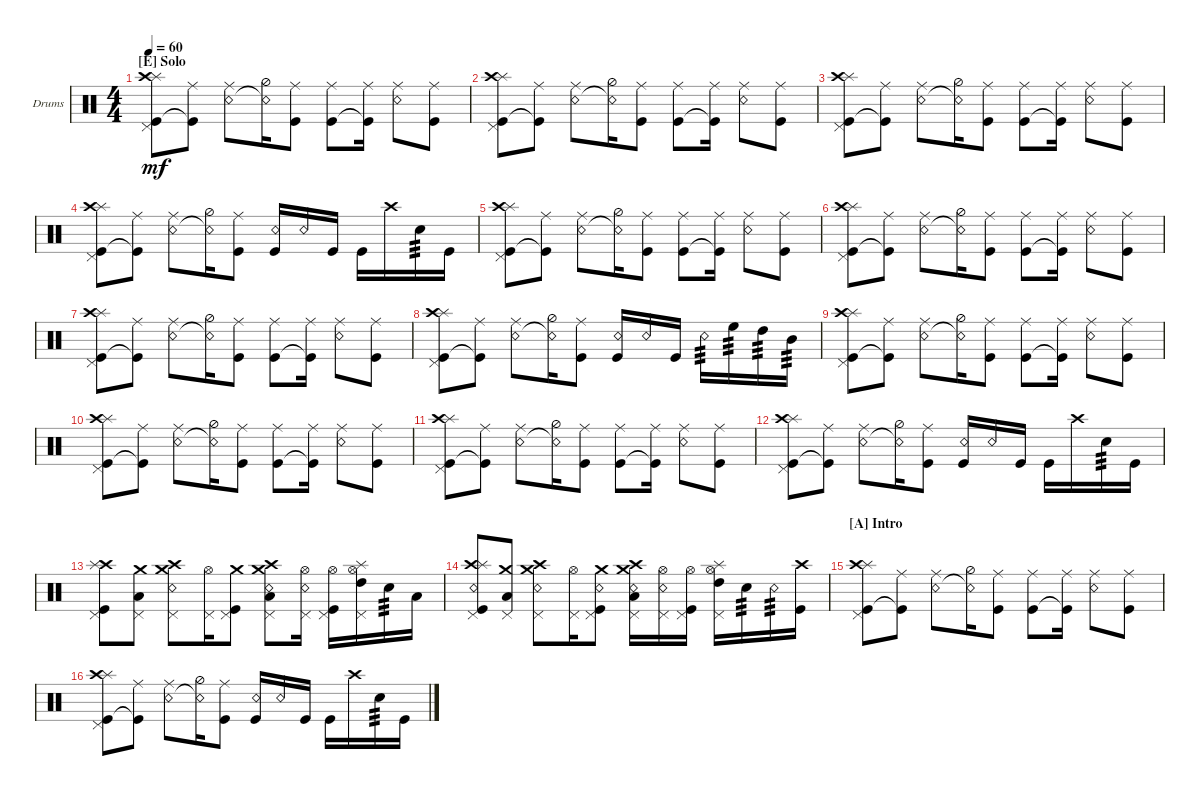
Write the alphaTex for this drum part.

\defaultSystemsLayout 4
\bracketExtendMode groupsimilarinstruments
\firstSystemTrackNameOrientation horizontal
\otherSystemsTrackNameOrientation horizontal
\track ("Drum" "Drums") {multiBarRest instrument percussion}
\staff {score}
\articulation defaults
\ts (4 4)
\section ("E" "Solo")
\tempo 60
\clef neutral
\ks c
("Kick (hit)" "Pedal Hi-Hat (hit)" "Splash (hit)" "Crash high (hit)").8{dy mf} ("Kick (hit)"{t} "Ride (middle)").8 ("Snare (rim shot)" "Ride (middle)").8 ("Snare (rim shot)"{t} "Hi-Hat (half)").16 ("Kick (hit)" "Ride (middle)").8 ("Kick (hit)" "Ride (middle)").8 ("Kick (hit)"{t} "Ride (middle)").16 ("Snare (rim shot)" "Ride (middle)").8 ("Kick (hit)" "Ride (middle)").8 |
("Kick (hit)" "Pedal Hi-Hat (hit)" "Splash (hit)" "Crash high (hit)").8 ("Kick (hit)"{t} "Ride (middle)").8 ("Snare (rim shot)" "Ride (middle)").8 ("Snare (rim shot)"{t} "Hi-Hat (half)").16 ("Kick (hit)" "Ride (middle)").8 ("Kick (hit)" "Ride (middle)").8 ("Kick (hit)"{t} "Ride (middle)").16 ("Snare (rim shot)" "Ride (middle)").8 ("Kick (hit)" "Ride (middle)").8 |
("Kick (hit)" "Pedal Hi-Hat (hit)" "Splash (hit)" "Crash high (hit)").8 ("Kick (hit)"{t} "Ride (middle)").8 ("Snare (rim shot)" "Ride (middle)").8 ("Snare (rim shot)"{t} "Hi-Hat (half)").16 ("Kick (hit)" "Ride (middle)").8 ("Kick (hit)" "Ride (middle)").8 ("Kick (hit)"{t} "Ride (middle)").16 ("Snare (rim shot)" "Ride (middle)").8 ("Kick (hit)" "Ride (middle)").8 |
("Kick (hit)" "Pedal Hi-Hat (hit)" "Splash (hit)" "Crash high (hit)").8 ("Kick (hit)"{t} "Ride (middle)").8 ("Snare (rim shot)" "Ride (middle)").8 ("Snare (rim shot)"{t} "Hi-Hat (half)").16 ("Kick (hit)" "Ride (middle)").8 ("Snare (rim shot)" "Kick (hit)").16 "Snare (rim shot)".16 "Kick (hit)".16 "Kick (hit)".16 "Crash high (hit)".16 "Snare (hit) 2".16{tp 3} "Kick (hit)".16 |
("Kick (hit)" "Pedal Hi-Hat (hit)" "Splash (hit)" "Crash high (hit)").8 ("Kick (hit)"{t} "Ride (middle)").8 ("Snare (rim shot)" "Ride (middle)").8 ("Snare (rim shot)"{t} "Hi-Hat (half)").16 ("Kick (hit)" "Ride (middle)").8 ("Kick (hit)" "Ride (middle)").8 ("Kick (hit)"{t} "Ride (middle)").16 ("Snare (rim shot)" "Ride (middle)").8 ("Kick (hit)" "Ride (middle)").8 |
("Kick (hit)" "Pedal Hi-Hat (hit)" "Splash (hit)" "Crash high (hit)").8 ("Kick (hit)"{t} "Ride (middle)").8 ("Snare (rim shot)" "Ride (middle)").8 ("Snare (rim shot)"{t} "Hi-Hat (half)").16 ("Kick (hit)" "Ride (middle)").8 ("Kick (hit)" "Ride (middle)").8 ("Kick (hit)"{t} "Ride (middle)").16 ("Snare (rim shot)" "Ride (middle)").8 ("Kick (hit)" "Ride (middle)").8 |
("Kick (hit)" "Pedal Hi-Hat (hit)" "Splash (hit)" "Crash high (hit)").8 ("Kick (hit)"{t} "Ride (middle)").8 ("Snare (rim shot)" "Ride (middle)").8 ("Snare (rim shot)"{t} "Hi-Hat (half)").16 ("Kick (hit)" "Ride (middle)").8 ("Kick (hit)" "Ride (middle)").8 ("Kick (hit)"{t} "Ride (middle)").16 ("Snare (rim shot)" "Ride (middle)").8 ("Kick (hit)" "Ride (middle)").8 |
("Kick (hit)" "Pedal Hi-Hat (hit)" "Splash (hit)" "Crash high (hit)").8 ("Kick (hit)"{t} "Ride (middle)").8 ("Snare (rim shot)" "Ride (middle)").8 ("Snare (rim shot)"{t} "Hi-Hat (half)").16 ("Kick (hit)" "Ride (middle)").8 ("Snare (rim shot)" "Kick (hit)").16 "Snare (rim shot)".16 "Kick (hit)".16 "Snare (rim shot)".16{tp 3} "High Floor Tom (hit)".16{tp 3} "High Tom (hit)".16{tp 3} "Mid Tom (hit)".16{tp 3} |
("Kick (hit)" "Pedal Hi-Hat (hit)" "Splash (hit)" "Crash high (hit)").8 ("Kick (hit)"{t} "Ride (middle)").8 ("Snare (rim shot)" "Ride (middle)").8 ("Snare (rim shot)"{t} "Hi-Hat (half)").16 ("Kick (hit)" "Ride (middle)").8 ("Kick (hit)" "Ride (middle)").8 ("Kick (hit)"{t} "Ride (middle)").16 ("Snare (rim shot)" "Ride (middle)").8 ("Kick (hit)" "Ride (middle)").8 |
("Kick (hit)" "Pedal Hi-Hat (hit)" "Splash (hit)" "Crash high (hit)").8 ("Kick (hit)"{t} "Ride (middle)").8 ("Snare (rim shot)" "Ride (middle)").8 ("Snare (rim shot)"{t} "Hi-Hat (half)").16 ("Kick (hit)" "Ride (middle)").8 ("Kick (hit)" "Ride (middle)").8 ("Kick (hit)"{t} "Ride (middle)").16 ("Snare (rim shot)" "Ride (middle)").8 ("Kick (hit)" "Ride (middle)").8 |
("Kick (hit)" "Pedal Hi-Hat (hit)" "Splash (hit)" "Crash high (hit)").8 ("Kick (hit)"{t} "Ride (middle)").8 ("Snare (rim shot)" "Ride (middle)").8 ("Snare (rim shot)"{t} "Hi-Hat (half)").16 ("Kick (hit)" "Ride (middle)").8 ("Kick (hit)" "Ride (middle)").8 ("Kick (hit)"{t} "Ride (middle)").16 ("Snare (rim shot)" "Ride (middle)").8 ("Kick (hit)" "Ride (middle)").8 |
("Kick (hit)" "Pedal Hi-Hat (hit)" "Splash (hit)" "Crash high (hit)").8 ("Kick (hit)"{t} "Ride (middle)").8 ("Snare (rim shot)" "Ride (middle)").8 ("Snare (rim shot)"{t} "Hi-Hat (half)").16 ("Kick (hit)" "Ride (middle)").8 ("Snare (rim shot)" "Kick (hit)").16 "Snare (rim shot)".16 "Kick (hit)".16 "Kick (hit)".16 "Crash high (hit)".16 "Snare (hit) 2".16{tp 3} "Kick (hit)".16 |
("Crash high (hit)" "Kick (hit)" "Splash (hit)" "Pedal Hi-Hat (hit)").8 ("Crash medium (hit)" "Low Tom (hit)" "Pedal Hi-Hat (hit)").8 ("Snare (rim shot)" "Pedal Hi-Hat (hit)" "Crash medium (hit)" "Crash high (hit)").8 ("Pedal Hi-Hat (hit)" "Hi-Hat (open)").16 ("Kick (hit)" "Pedal Hi-Hat (hit)" "Crash medium (hit)").8 ("Snare (rim shot)" "Crash medium (hit)" "Crash high (hit)" "Pedal Hi-Hat (hit)" "Low Tom (hit)").8 ("Snare (rim shot)" "Hi-Hat (open)" "Pedal Hi-Hat (hit)").16 ("Hi-Hat (open)" "Kick (hit)" "Pedal Hi-Hat (hit)").16 ("Splash (hit)" "Pedal Hi-Hat (hit)" "Hi-Hat (open)" "High Tom (hit)").16 "Snare (hit) 2".16{tp 3} "Low Tom (hit)".16 |
("Crash high (hit)" "Kick (hit)" "Splash (hit)" "Pedal Hi-Hat (hit)" "Snare (rim shot)").8 ("Crash medium (hit)" "Low Tom (hit)" "Pedal Hi-Hat (hit)").8 ("Snare (rim shot)" "Pedal Hi-Hat (hit)" "Crash medium (hit)" "Crash high (hit)").8 ("Pedal Hi-Hat (hit)" "Hi-Hat (open)").16 ("Kick (hit)" "Pedal Hi-Hat (hit)" "Crash medium (hit)" "Snare (rim shot)").8 ("Snare (rim shot)" "Crash medium (hit)" "Crash high (hit)" "Pedal Hi-Hat (hit)" "Low Tom (hit)").16 ("Snare (rim shot)" "Hi-Hat (open)" "Pedal Hi-Hat (hit)").16 ("Hi-Hat (open)" "Kick (hit)" "Pedal Hi-Hat (hit)").16 ("Splash (hit)" "Pedal Hi-Hat (hit)" "Hi-Hat (open)" "High Tom (hit)").16 "Snare (hit) 2".16{tp 3} "Snare (rim shot)".16{tp 3} ("Crash high (hit)" "Kick (hit)").16 |
\section ("A" "Intro")
("Kick (hit)" "Pedal Hi-Hat (hit)" "Splash (hit)" "Crash high (hit)").8 ("Kick (hit)"{t} "Ride (middle)").8 ("Snare (rim shot)" "Ride (middle)").8 ("Snare (rim shot)"{t} "Hi-Hat (half)").16 ("Kick (hit)" "Ride (middle)").8 ("Kick (hit)" "Ride (middle)").8 ("Kick (hit)"{t} "Ride (middle)").16 ("Snare (rim shot)" "Ride (middle)").8 ("Kick (hit)" "Ride (middle)").8 |
("Kick (hit)" "Pedal Hi-Hat (hit)" "Splash (hit)" "Crash high (hit)").8 ("Kick (hit)"{t} "Ride (middle)").8 ("Snare (rim shot)" "Ride (middle)").8 ("Snare (rim shot)"{t} "Hi-Hat (half)").16 ("Kick (hit)" "Ride (middle)").8 ("Snare (rim shot)" "Kick (hit)").16 "Snare (rim shot)".16 "Kick (hit)".16 "Kick (hit)".16 "Crash high (hit)".16 "Snare (hit) 2".16{tp 3} "Kick (hit)".16
